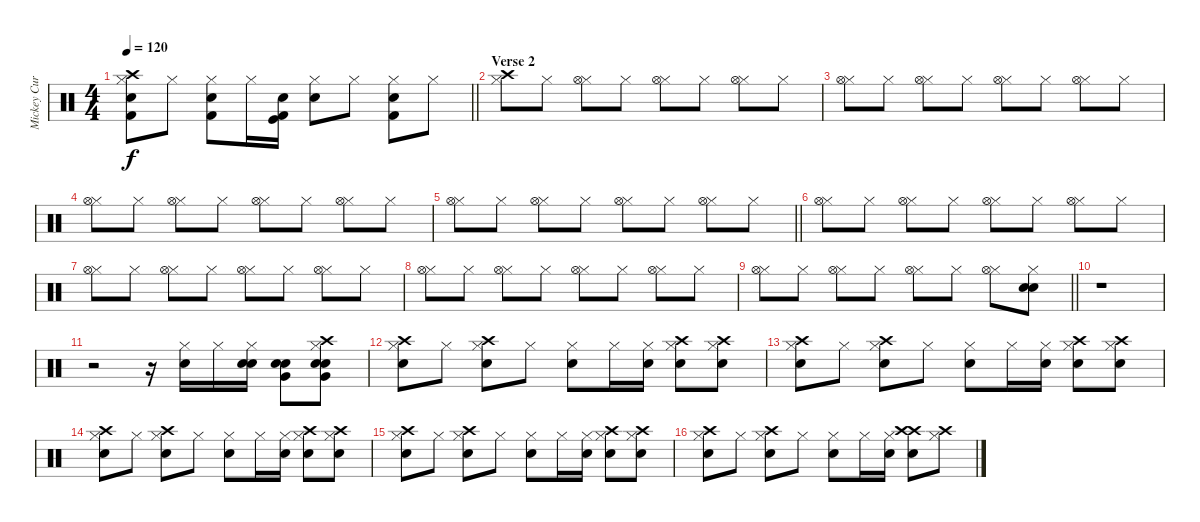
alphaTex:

\track ("Mickey Curry" "Mickey Cur") {instrument percussion}
\staff {score}
\articulation defaults
\ts (4 4)
\tempo 120
\clef neutral
\barLineRight lightlight
\ks c
("Hi-Hat (closed)" "Snare (hit) 2" "Kick (hit) 2" "Crash high (hit)").8{dy f} "Hi-Hat (closed)".8 ("Hi-Hat (closed)" "Snare (hit) 2" "Kick (hit) 2").8 "Hi-Hat (closed)".16 ("Kick (hit)" "Kick (hit) 2" "Electric Snare (hit)").16 ("Hi-Hat (closed)" "Snare (hit) 2").8 "Hi-Hat (closed)".8 ("Hi-Hat (closed)" "Snare (hit) 2" "Kick (hit) 2").8 "Hi-Hat (closed)".8 |
\section ("" "Verse 2")
("Hi-Hat (closed)" "Crash high (hit)").8 "Hi-Hat (closed)".8 ("Hi-Hat (closed)" "Hi-Hat (open)").8 "Hi-Hat (closed)".8 ("Hi-Hat (closed)" "Hi-Hat (open)").8 "Hi-Hat (closed)".8 ("Hi-Hat (closed)" "Hi-Hat (open)").8 "Hi-Hat (closed)".8 |
("Hi-Hat (closed)" "Hi-Hat (open)").8 "Hi-Hat (closed)".8 ("Hi-Hat (closed)" "Hi-Hat (open)").8 "Hi-Hat (closed)".8 ("Hi-Hat (closed)" "Hi-Hat (open)").8 "Hi-Hat (closed)".8 ("Hi-Hat (closed)" "Hi-Hat (open)").8 "Hi-Hat (closed)".8 |
("Hi-Hat (closed)" "Hi-Hat (open)").8 "Hi-Hat (closed)".8 ("Hi-Hat (closed)" "Hi-Hat (open)").8 "Hi-Hat (closed)".8 ("Hi-Hat (closed)" "Hi-Hat (open)").8 "Hi-Hat (closed)".8 ("Hi-Hat (closed)" "Hi-Hat (open)").8 "Hi-Hat (closed)".8 |
\barLineRight lightlight
("Hi-Hat (closed)" "Hi-Hat (open)").8 "Hi-Hat (closed)".8 ("Hi-Hat (closed)" "Hi-Hat (open)").8 "Hi-Hat (closed)".8 ("Hi-Hat (closed)" "Hi-Hat (open)").8 "Hi-Hat (closed)".8 ("Hi-Hat (closed)" "Hi-Hat (open)").8 "Hi-Hat (closed)".8 |
("Hi-Hat (closed)" "Hi-Hat (open)").8 "Hi-Hat (closed)".8 ("Hi-Hat (closed)" "Hi-Hat (open)").8 "Hi-Hat (closed)".8 ("Hi-Hat (closed)" "Hi-Hat (open)").8 "Hi-Hat (closed)".8 ("Hi-Hat (closed)" "Hi-Hat (open)").8 "Hi-Hat (closed)".8 |
("Hi-Hat (closed)" "Hi-Hat (open)").8 "Hi-Hat (closed)".8 ("Hi-Hat (closed)" "Hi-Hat (open)").8 "Hi-Hat (closed)".8 ("Hi-Hat (closed)" "Hi-Hat (open)").8 "Hi-Hat (closed)".8 ("Hi-Hat (closed)" "Hi-Hat (open)").8 "Hi-Hat (closed)".8 |
("Hi-Hat (closed)" "Hi-Hat (open)").8 "Hi-Hat (closed)".8 ("Hi-Hat (closed)" "Hi-Hat (open)").8 "Hi-Hat (closed)".8 ("Hi-Hat (closed)" "Hi-Hat (open)").8 "Hi-Hat (closed)".8 ("Hi-Hat (closed)" "Hi-Hat (open)").8 "Hi-Hat (closed)".8 |
\barLineRight lightlight
("Hi-Hat (closed)" "Hi-Hat (open)").8 "Hi-Hat (closed)".8 ("Hi-Hat (closed)" "Hi-Hat (open)").8 "Hi-Hat (closed)".8 ("Hi-Hat (closed)" "Hi-Hat (open)").8 "Hi-Hat (closed)".8 ("Hi-Hat (closed)" "Hi-Hat (open)").8 ("Hi-Hat (closed)" "Snare (hit) 2" "Snare (hit) 2").8 |
r.1 |
r.2 r.16 ("Hi-Hat (closed)" "Electric Snare (hit)").16 "Hi-Hat (closed)".16 ("Hi-Hat (closed)" "Snare (hit) 2" "Electric Snare (hit)").16 ("Very Low Tom (hit)" "Snare (hit) 2" "Snare (hit) 2").8 ("Very Low Tom (hit)" "Hi-Hat (closed)" "Snare (hit) 2" "Snare (hit) 2" "Crash high (hit)").8 |
("Hi-Hat (closed)" "Snare (hit) 2" "Crash high (hit)").8 "Hi-Hat (closed)".8 ("Hi-Hat (closed)" "Snare (hit) 2" "Crash high (hit)").8 "Hi-Hat (closed)".8 ("Hi-Hat (closed)" "Snare (hit) 2").8 "Hi-Hat (closed)".16 ("Hi-Hat (closed)" "Electric Snare (hit)").16 ("Hi-Hat (closed)" "Snare (hit) 2" "Crash high (hit)").8 ("Hi-Hat (closed)" "Snare (hit) 2" "Crash high (hit)").8 |
("Hi-Hat (closed)" "Snare (hit) 2" "Crash high (hit)").8 "Hi-Hat (closed)".8 ("Hi-Hat (closed)" "Snare (hit) 2" "Crash high (hit)").8 "Hi-Hat (closed)".8 ("Hi-Hat (closed)" "Snare (hit) 2").8 "Hi-Hat (closed)".16 ("Hi-Hat (closed)" "Electric Snare (hit)").16 ("Hi-Hat (closed)" "Snare (hit) 2" "Crash high (hit)").8 ("Hi-Hat (closed)" "Snare (hit) 2" "Crash high (hit)").8 |
("Hi-Hat (closed)" "Snare (hit) 2" "Crash high (hit)").8 "Hi-Hat (closed)".8 ("Hi-Hat (closed)" "Snare (hit) 2" "Crash high (hit)").8 "Hi-Hat (closed)".8 ("Hi-Hat (closed)" "Snare (hit) 2").8 "Hi-Hat (closed)".16 ("Hi-Hat (closed)" "Electric Snare (hit)").16 ("Hi-Hat (closed)" "Snare (hit) 2" "Crash high (hit)").8 ("Hi-Hat (closed)" "Snare (hit) 2" "Crash high (hit)").8 |
("Hi-Hat (closed)" "Snare (hit) 2" "Crash high (hit)").8 "Hi-Hat (closed)".8 ("Hi-Hat (closed)" "Snare (hit) 2" "Crash high (hit)").8 "Hi-Hat (closed)".8 ("Hi-Hat (closed)" "Snare (hit) 2").8 "Hi-Hat (closed)".16 ("Hi-Hat (closed)" "Electric Snare (hit)").16 ("Hi-Hat (closed)" "Snare (hit) 2" "Crash high (hit)").8 ("Hi-Hat (closed)" "Snare (hit) 2" "Crash high (hit)").8 |
("Hi-Hat (closed)" "Snare (hit) 2" "Crash high (hit)").8 "Hi-Hat (closed)".8 ("Hi-Hat (closed)" "Snare (hit) 2" "Crash high (hit)").8 "Hi-Hat (closed)".8 ("Hi-Hat (closed)" "Snare (hit) 2").8 "Hi-Hat (closed)".16 ("Hi-Hat (closed)" "Electric Snare (hit)").16 ("Crash high (hit)" "Snare (hit) 2" "Crash high (hit)").8 ("Hi-Hat (closed)" "Crash high (hit)").8
